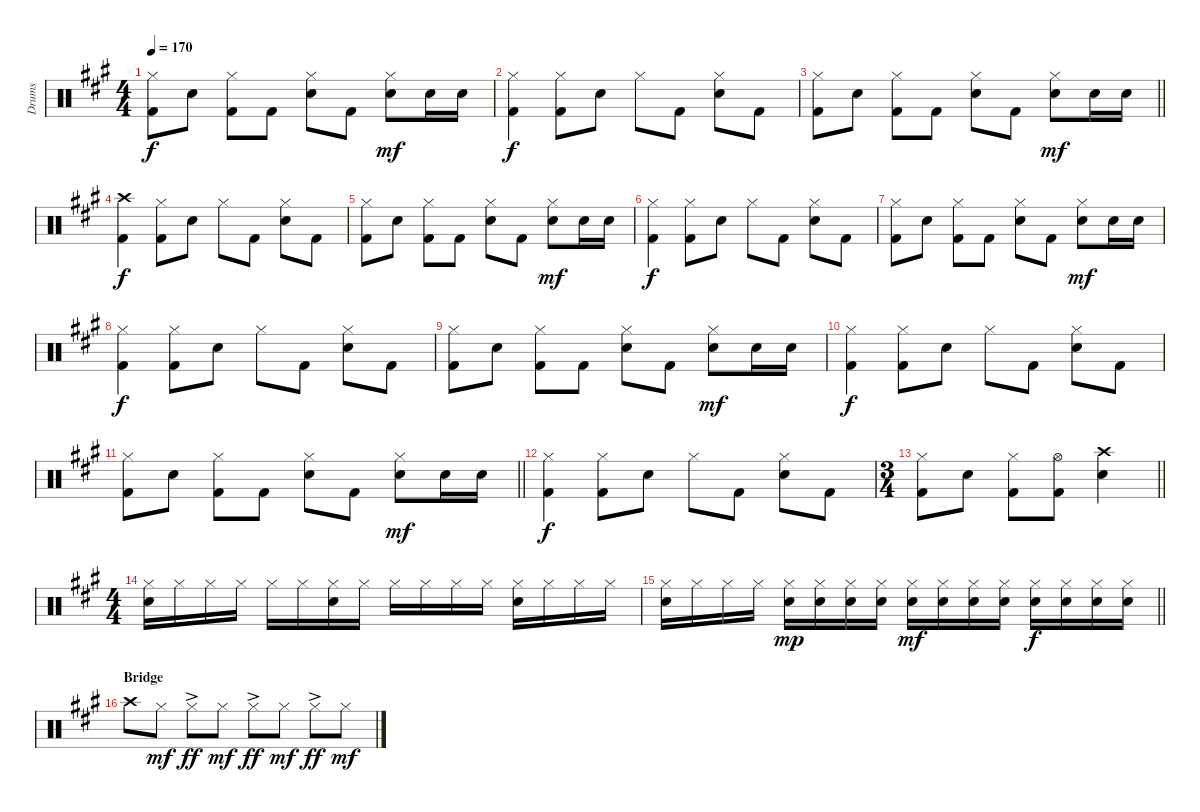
\track ("Drums" "Drums") {instrument percussion}
\staff {score}
\articulation defaults
\ts (4 4)
\tempo 170
\clef neutral
\ks f#minor
("Hi-Hat (closed)" "Kick (hit) 2").8{dy f} "Snare (hit) 2".8 ("Hi-Hat (closed)" "Kick (hit) 2").8 "Kick (hit) 2".8 ("Hi-Hat (closed)" "Snare (hit) 2").8 "Kick (hit) 2".8 ("Hi-Hat (closed)" "Snare (hit) 2").8{dy mf} "Snare (hit) 2".16 "Snare (hit) 2".16 |
("Hi-Hat (closed)" "Kick (hit) 2").4{dy f} ("Hi-Hat (closed)" "Kick (hit) 2").8 "Snare (hit) 2".8 "Hi-Hat (closed)".8 "Kick (hit) 2".8 ("Hi-Hat (closed)" "Snare (hit) 2").8 "Kick (hit) 2".8 |
\barLineRight lightlight
("Hi-Hat (closed)" "Kick (hit) 2").8 "Snare (hit) 2".8 ("Hi-Hat (closed)" "Kick (hit) 2").8 "Kick (hit) 2".8 ("Hi-Hat (closed)" "Snare (hit) 2").8 "Kick (hit) 2".8 ("Hi-Hat (closed)" "Snare (hit) 2").8{dy mf} "Snare (hit) 2".16 "Snare (hit) 2".16 |
("Crash high (hit)" "Kick (hit) 2").4{dy f} ("Hi-Hat (closed)" "Kick (hit) 2").8 "Snare (hit) 2".8 "Hi-Hat (closed)".8 "Kick (hit) 2".8 ("Hi-Hat (closed)" "Snare (hit) 2").8 "Kick (hit) 2".8 |
("Hi-Hat (closed)" "Kick (hit) 2").8 "Snare (hit) 2".8 ("Hi-Hat (closed)" "Kick (hit) 2").8 "Kick (hit) 2".8 ("Hi-Hat (closed)" "Snare (hit) 2").8 "Kick (hit) 2".8 ("Hi-Hat (closed)" "Snare (hit) 2").8{dy mf} "Snare (hit) 2".16 "Snare (hit) 2".16 |
("Hi-Hat (closed)" "Kick (hit) 2").4{dy f} ("Hi-Hat (closed)" "Kick (hit) 2").8 "Snare (hit) 2".8 "Hi-Hat (closed)".8 "Kick (hit) 2".8 ("Hi-Hat (closed)" "Snare (hit) 2").8 "Kick (hit) 2".8 |
("Hi-Hat (closed)" "Kick (hit) 2").8 "Snare (hit) 2".8 ("Hi-Hat (closed)" "Kick (hit) 2").8 "Kick (hit) 2".8 ("Hi-Hat (closed)" "Snare (hit) 2").8 "Kick (hit) 2".8 ("Hi-Hat (closed)" "Snare (hit) 2").8{dy mf} "Snare (hit) 2".16 "Snare (hit) 2".16 |
("Hi-Hat (closed)" "Kick (hit) 2").4{dy f} ("Hi-Hat (closed)" "Kick (hit) 2").8 "Snare (hit) 2".8 "Hi-Hat (closed)".8 "Kick (hit) 2".8 ("Hi-Hat (closed)" "Snare (hit) 2").8 "Kick (hit) 2".8 |
("Hi-Hat (closed)" "Kick (hit) 2").8 "Snare (hit) 2".8 ("Hi-Hat (closed)" "Kick (hit) 2").8 "Kick (hit) 2".8 ("Hi-Hat (closed)" "Snare (hit) 2").8 "Kick (hit) 2".8 ("Hi-Hat (closed)" "Snare (hit) 2").8{dy mf} "Snare (hit) 2".16 "Snare (hit) 2".16 |
("Hi-Hat (closed)" "Kick (hit) 2").4{dy f} ("Hi-Hat (closed)" "Kick (hit) 2").8 "Snare (hit) 2".8 "Hi-Hat (closed)".8 "Kick (hit) 2".8 ("Hi-Hat (closed)" "Snare (hit) 2").8 "Kick (hit) 2".8 |
\barLineRight lightlight
("Hi-Hat (closed)" "Kick (hit) 2").8 "Snare (hit) 2".8 ("Hi-Hat (closed)" "Kick (hit) 2").8 "Kick (hit) 2".8 ("Hi-Hat (closed)" "Snare (hit) 2").8 "Kick (hit) 2".8 ("Hi-Hat (closed)" "Snare (hit) 2").8{dy mf} "Snare (hit) 2".16 "Snare (hit) 2".16 |
("Hi-Hat (closed)" "Kick (hit) 2").4{dy f} ("Hi-Hat (closed)" "Kick (hit) 2").8 "Snare (hit) 2".8 "Hi-Hat (closed)".8 "Kick (hit) 2".8 ("Hi-Hat (closed)" "Snare (hit) 2").8 "Kick (hit) 2".8 |
\ts (3 4)
\barLineRight lightlight
("Hi-Hat (closed)" "Kick (hit) 2").8 "Snare (hit) 2".8 ("Hi-Hat (closed)" "Kick (hit) 2").8 ("Hi-Hat (open)" "Kick (hit) 2").8 ("Crash high (hit)" "Snare (hit) 2").4 |
\ts (4 4)
("Hi-Hat (closed)" "Snare (hit) 2").16 "Hi-Hat (closed)".16 "Hi-Hat (closed)".16 "Hi-Hat (closed)".16 "Hi-Hat (closed)".16 "Hi-Hat (closed)".16 ("Hi-Hat (closed)" "Snare (hit) 2").16 "Hi-Hat (closed)".16 "Hi-Hat (closed)".16 "Hi-Hat (closed)".16 "Hi-Hat (closed)".16 "Hi-Hat (closed)".16 ("Hi-Hat (closed)" "Snare (hit) 2").16 "Hi-Hat (closed)".16 "Hi-Hat (closed)".16 "Hi-Hat (closed)".16 |
\barLineRight lightlight
("Hi-Hat (closed)" "Snare (hit) 2").16 "Hi-Hat (closed)".16 "Hi-Hat (closed)".16 "Hi-Hat (closed)".16 ("Hi-Hat (closed)" "Snare (hit) 2").16{dy mp} ("Hi-Hat (closed)" "Snare (hit) 2").16 ("Hi-Hat (closed)" "Snare (hit) 2").16 ("Hi-Hat (closed)" "Snare (hit) 2").16 ("Hi-Hat (closed)" "Snare (hit) 2").16{dy mf} ("Hi-Hat (closed)" "Snare (hit) 2").16 ("Hi-Hat (closed)" "Snare (hit) 2").16 ("Hi-Hat (closed)" "Snare (hit) 2").16 ("Hi-Hat (closed)" "Snare (hit) 2").16{dy f} ("Hi-Hat (closed)" "Snare (hit) 2").16 ("Hi-Hat (closed)" "Snare (hit) 2").16 ("Hi-Hat (closed)" "Snare (hit) 2").16 |
\section ("" "Bridge")
"Crash high (hit)".8 "Hi-Hat (closed)".8{dy mf} "Hi-Hat (closed)"{ac}.8{dy ff} "Hi-Hat (closed)".8{dy mf} "Hi-Hat (closed)"{ac}.8{dy ff} "Hi-Hat (closed)".8{dy mf} "Hi-Hat (closed)"{ac}.8{dy ff} "Hi-Hat (closed)".8{dy mf}
